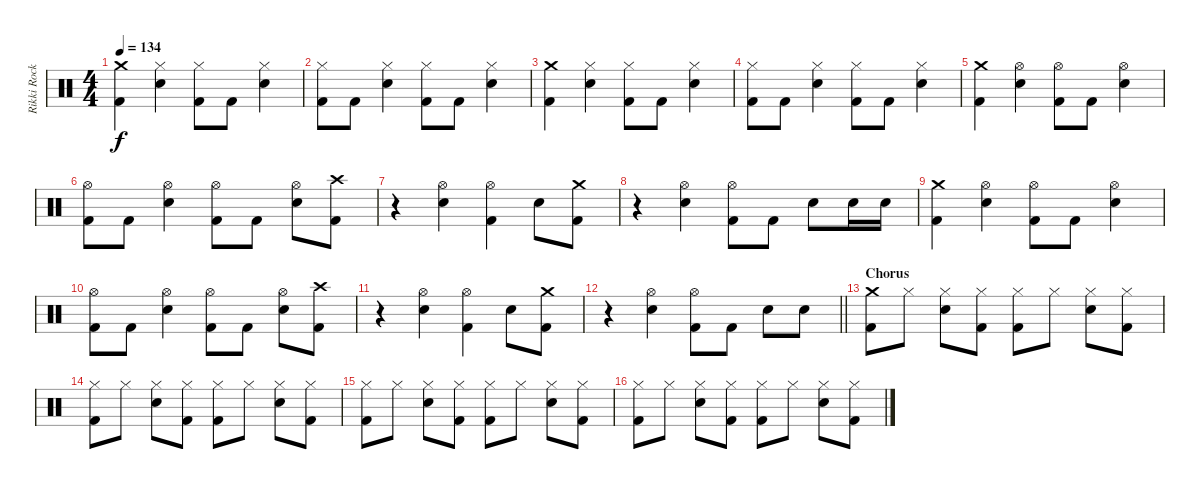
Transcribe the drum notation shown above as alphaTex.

\track ("Rikki Rocket" "Rikki Rock") {instrument percussion}
\staff {score}
\articulation defaults
\ts (4 4)
\tempo 134
\clef neutral
\ks c
("Crash medium (hit)" "Kick (hit) 2").4{dy f} ("Hi-Hat (closed)" "Snare (hit) 2").4 ("Hi-Hat (closed)" "Kick (hit) 2").8 "Kick (hit) 2".8 ("Hi-Hat (closed)" "Snare (hit) 2").4 |
("Hi-Hat (closed)" "Kick (hit) 2").8 "Kick (hit) 2".8 ("Hi-Hat (closed)" "Snare (hit) 2").4 ("Hi-Hat (closed)" "Kick (hit) 2").8 "Kick (hit) 2".8 ("Hi-Hat (closed)" "Snare (hit) 2").4 |
("Crash medium (hit)" "Kick (hit) 2").4 ("Hi-Hat (closed)" "Snare (hit) 2").4 ("Hi-Hat (closed)" "Kick (hit) 2").8 "Kick (hit) 2".8 ("Hi-Hat (closed)" "Snare (hit) 2").4 |
("Hi-Hat (closed)" "Kick (hit) 2").8 "Kick (hit) 2".8 ("Hi-Hat (closed)" "Snare (hit) 2").4 ("Hi-Hat (closed)" "Kick (hit) 2").8 "Kick (hit) 2".8 ("Hi-Hat (closed)" "Snare (hit) 2").4 |
("Crash medium (hit)" "Kick (hit) 2").4 ("Hi-Hat (open)" "Snare (hit) 2").4 ("Hi-Hat (open)" "Kick (hit) 2").8 "Kick (hit) 2".8 ("Hi-Hat (open)" "Snare (hit) 2").4 |
("Hi-Hat (open)" "Kick (hit) 2").8 "Kick (hit) 2".8 ("Hi-Hat (open)" "Snare (hit) 2").4 ("Hi-Hat (open)" "Kick (hit) 2").8 "Kick (hit) 2".8 ("Hi-Hat (open)" "Snare (hit) 2").8 ("Crash high (hit)" "Kick (hit) 2").8 |
r.4 ("Hi-Hat (open)" "Snare (hit) 2").4 ("Hi-Hat (open)" "Kick (hit) 2").4 "Snare (hit) 2".8 ("Crash medium (hit)" "Kick (hit) 2").8 |
r.4 ("Hi-Hat (open)" "Snare (hit) 2").4 ("Hi-Hat (open)" "Kick (hit) 2").8 "Kick (hit) 2".8 "Snare (hit) 2".8 "Snare (hit) 2".16 "Snare (hit) 2".16 |
("Crash medium (hit)" "Kick (hit) 2").4 ("Hi-Hat (open)" "Snare (hit) 2").4 ("Hi-Hat (open)" "Kick (hit) 2").8 "Kick (hit) 2".8 ("Hi-Hat (open)" "Snare (hit) 2").4 |
("Hi-Hat (open)" "Kick (hit) 2").8 "Kick (hit) 2".8 ("Hi-Hat (open)" "Snare (hit) 2").4 ("Hi-Hat (open)" "Kick (hit) 2").8 "Kick (hit) 2".8 ("Hi-Hat (open)" "Snare (hit) 2").8 ("Crash high (hit)" "Kick (hit) 2").8 |
r.4 ("Hi-Hat (open)" "Snare (hit) 2").4 ("Hi-Hat (open)" "Kick (hit) 2").4 "Snare (hit) 2".8 ("Crash medium (hit)" "Kick (hit) 2").8 |
\barLineRight lightlight
r.4 ("Hi-Hat (open)" "Snare (hit) 2").4 ("Hi-Hat (open)" "Kick (hit) 2").8 "Kick (hit) 2".8 "Snare (hit) 2".8 "Snare (hit) 2".8 |
\section ("" "Chorus")
("Crash medium (hit)" "Kick (hit) 2").8 "Hi-Hat (closed)".8 ("Hi-Hat (closed)" "Snare (hit) 2").8 ("Hi-Hat (closed)" "Kick (hit) 2").8 ("Hi-Hat (closed)" "Kick (hit) 2").8 "Hi-Hat (closed)".8 ("Hi-Hat (closed)" "Snare (hit) 2").8 ("Hi-Hat (closed)" "Kick (hit) 2").8 |
("Hi-Hat (closed)" "Kick (hit) 2").8 "Hi-Hat (closed)".8 ("Hi-Hat (closed)" "Snare (hit) 2").8 ("Hi-Hat (closed)" "Kick (hit) 2").8 ("Hi-Hat (closed)" "Kick (hit) 2").8 "Hi-Hat (closed)".8 ("Hi-Hat (closed)" "Snare (hit) 2").8 ("Hi-Hat (closed)" "Kick (hit) 2").8 |
("Hi-Hat (closed)" "Kick (hit) 2").8 "Hi-Hat (closed)".8 ("Hi-Hat (closed)" "Snare (hit) 2").8 ("Hi-Hat (closed)" "Kick (hit) 2").8 ("Hi-Hat (closed)" "Kick (hit) 2").8 "Hi-Hat (closed)".8 ("Hi-Hat (closed)" "Snare (hit) 2").8 ("Hi-Hat (closed)" "Kick (hit) 2").8 |
("Hi-Hat (closed)" "Kick (hit) 2").8 "Hi-Hat (closed)".8 ("Hi-Hat (closed)" "Snare (hit) 2").8 ("Hi-Hat (closed)" "Kick (hit) 2").8 ("Hi-Hat (closed)" "Kick (hit) 2").8 "Hi-Hat (closed)".8 ("Hi-Hat (closed)" "Snare (hit) 2").8 ("Hi-Hat (closed)" "Kick (hit) 2").8
